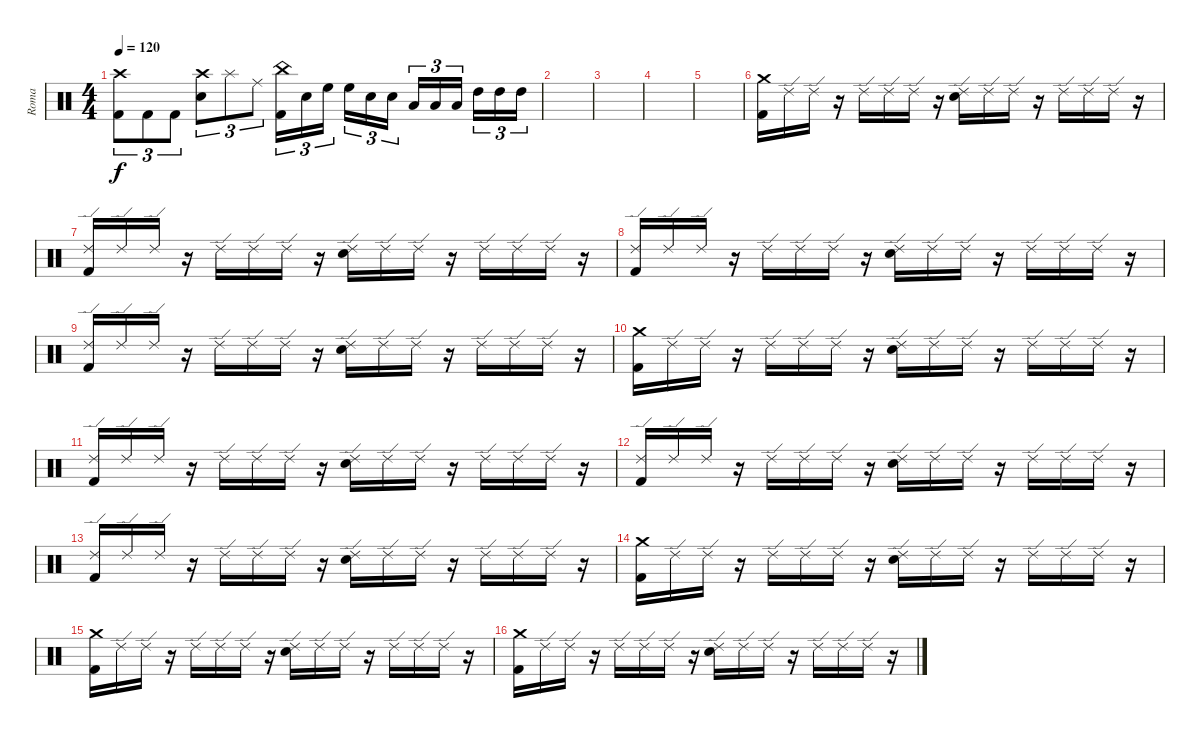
\track ("Roma" "Roma") {instrument percussion}
\staff {score}
\articulation defaults
\ts (4 4)
\tempo 120
\clef neutral
\ks c
("Crash high (hit)" "Kick (hit) 2").8{tu (3 2) dy f} "Kick (hit) 2".8{tu (3 2)} "Kick (hit) 2".8{tu (3 2)} ("Crash high (hit)" "Electric Snare (hit)").8{tu (3 2)} "Splash (hit)".8{tu (3 2)} "Ride (middle)".8{tu (3 2)} ("China (hit)" "Kick (hit) 2").16{tu (3 2)} "Electric Snare (hit)".16{tu (3 2)} "High Floor Tom (hit)".16{tu (3 2) beam splitsecondary} "High Floor Tom (hit)".16{tu (3 2)} "Electric Snare (hit)".16{tu (3 2)} "Electric Snare (hit)".16{tu (3 2)} "Low Tom (hit)".16{tu (3 2)} "Low Tom (hit)".16{tu (3 2)} "Low Tom (hit)".16{tu (3 2) beam splitsecondary} "High Tom (hit)".16{tu (3 2)} "High Tom (hit)".16{tu (3 2)} "High Tom (hit)".16{tu (3 2)} |
|
|
|
|
("Crash medium (hit)" "Kick (hit) 2").16 "Ride (edge) 2".16 "Ride (edge) 2".16 r.16 "Ride (edge) 2".16 "Ride (edge) 2".16 "Ride (edge) 2".16 r.16 ("Ride (edge) 2" "Electric Snare (hit)").16 "Ride (edge) 2".16 "Ride (edge) 2".16 r.16 "Ride (edge) 2".16 "Ride (edge) 2".16 "Ride (edge) 2".16 r.16 |
("Ride (edge) 2" "Kick (hit) 2").16 "Ride (edge) 2".16 "Ride (edge) 2".16 r.16 "Ride (edge) 2".16 "Ride (edge) 2".16 "Ride (edge) 2".16 r.16 ("Ride (edge) 2" "Electric Snare (hit)").16 "Ride (edge) 2".16 "Ride (edge) 2".16 r.16 "Ride (edge) 2".16 "Ride (edge) 2".16 "Ride (edge) 2".16 r.16 |
("Ride (edge) 2" "Kick (hit) 2").16 "Ride (edge) 2".16 "Ride (edge) 2".16 r.16 "Ride (edge) 2".16 "Ride (edge) 2".16 "Ride (edge) 2".16 r.16 ("Ride (edge) 2" "Electric Snare (hit)").16 "Ride (edge) 2".16 "Ride (edge) 2".16 r.16 "Ride (edge) 2".16 "Ride (edge) 2".16 "Ride (edge) 2".16 r.16 |
("Ride (edge) 2" "Kick (hit) 2").16 "Ride (edge) 2".16 "Ride (edge) 2".16 r.16 "Ride (edge) 2".16 "Ride (edge) 2".16 "Ride (edge) 2".16 r.16 ("Ride (edge) 2" "Electric Snare (hit)").16 "Ride (edge) 2".16 "Ride (edge) 2".16 r.16 "Ride (edge) 2".16 "Ride (edge) 2".16 "Ride (edge) 2".16 r.16 |
("Crash medium (hit)" "Kick (hit) 2").16 "Ride (edge) 2".16 "Ride (edge) 2".16 r.16 "Ride (edge) 2".16 "Ride (edge) 2".16 "Ride (edge) 2".16 r.16 ("Ride (edge) 2" "Electric Snare (hit)").16 "Ride (edge) 2".16 "Ride (edge) 2".16 r.16 "Ride (edge) 2".16 "Ride (edge) 2".16 "Ride (edge) 2".16 r.16 |
("Ride (edge) 2" "Kick (hit) 2").16 "Ride (edge) 2".16 "Ride (edge) 2".16 r.16 "Ride (edge) 2".16 "Ride (edge) 2".16 "Ride (edge) 2".16 r.16 ("Ride (edge) 2" "Electric Snare (hit)").16 "Ride (edge) 2".16 "Ride (edge) 2".16 r.16 "Ride (edge) 2".16 "Ride (edge) 2".16 "Ride (edge) 2".16 r.16 |
("Ride (edge) 2" "Kick (hit) 2").16 "Ride (edge) 2".16 "Ride (edge) 2".16 r.16 "Ride (edge) 2".16 "Ride (edge) 2".16 "Ride (edge) 2".16 r.16 ("Ride (edge) 2" "Electric Snare (hit)").16 "Ride (edge) 2".16 "Ride (edge) 2".16 r.16 "Ride (edge) 2".16 "Ride (edge) 2".16 "Ride (edge) 2".16 r.16 |
("Ride (edge) 2" "Kick (hit) 2").16 "Ride (edge) 2".16 "Ride (edge) 2".16 r.16 "Ride (edge) 2".16 "Ride (edge) 2".16 "Ride (edge) 2".16 r.16 ("Ride (edge) 2" "Electric Snare (hit)").16 "Ride (edge) 2".16 "Ride (edge) 2".16 r.16 "Ride (edge) 2".16 "Ride (edge) 2".16 "Ride (edge) 2".16 r.16 |
("Crash medium (hit)" "Kick (hit) 2").16 "Ride (edge) 2".16 "Ride (edge) 2".16 r.16 "Ride (edge) 2".16 "Ride (edge) 2".16 "Ride (edge) 2".16 r.16 ("Ride (edge) 2" "Electric Snare (hit)").16 "Ride (edge) 2".16 "Ride (edge) 2".16 r.16 "Ride (edge) 2".16 "Ride (edge) 2".16 "Ride (edge) 2".16 r.16 |
("Crash medium (hit)" "Kick (hit) 2").16 "Ride (edge) 2".16 "Ride (edge) 2".16 r.16 "Ride (edge) 2".16 "Ride (edge) 2".16 "Ride (edge) 2".16 r.16 ("Ride (edge) 2" "Electric Snare (hit)").16 "Ride (edge) 2".16 "Ride (edge) 2".16 r.16 "Ride (edge) 2".16 "Ride (edge) 2".16 "Ride (edge) 2".16 r.16 |
("Crash medium (hit)" "Kick (hit) 2").16 "Ride (edge) 2".16 "Ride (edge) 2".16 r.16 "Ride (edge) 2".16 "Ride (edge) 2".16 "Ride (edge) 2".16 r.16 ("Ride (edge) 2" "Electric Snare (hit)").16 "Ride (edge) 2".16 "Ride (edge) 2".16 r.16 "Ride (edge) 2".16 "Ride (edge) 2".16 "Ride (edge) 2".16 r.16
